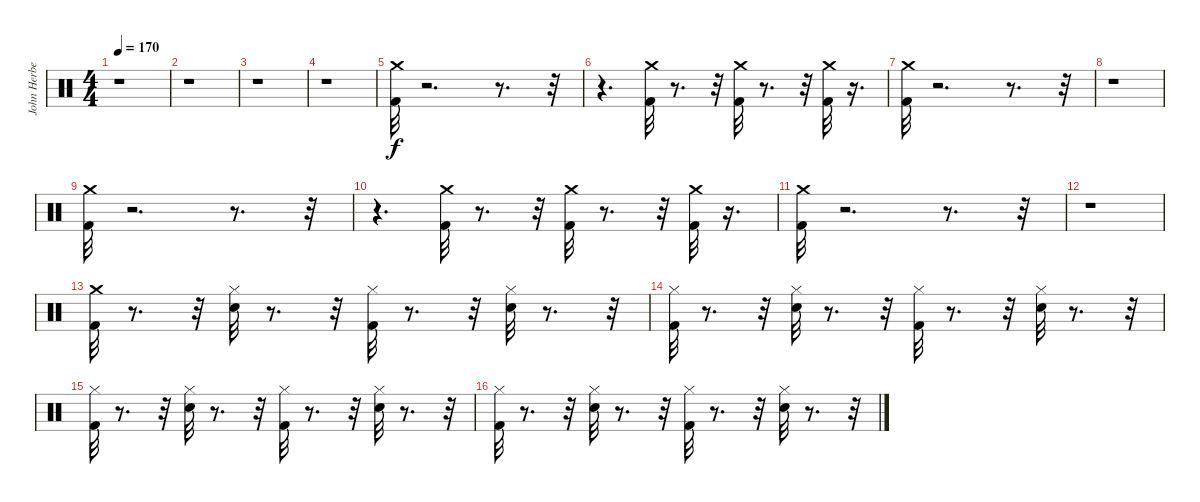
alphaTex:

\track ("John Herbert" "John Herbe") {instrument percussion}
\staff {score}
\articulation defaults
\ts (4 4)
\tempo 170
\clef neutral
\ks c
r.1{dy f} |
r.1 |
r.1 |
r.1 |
("Kick (hit) 2" "Crash medium (hit)").32 r.2{d} r.8{d} r.32 |
r.4{d} ("Crash medium (hit)" "Kick (hit) 2").32 r.8{d} r.32 ("Kick (hit) 2" "Crash medium (hit)").32 r.8{d} r.32 ("Kick (hit) 2" "Crash medium (hit)").32 r.16{d} |
("Kick (hit) 2" "Crash medium (hit)").32 r.2{d} r.8{d} r.32 |
r.1 |
("Kick (hit) 2" "Crash medium (hit)").32 r.2{d} r.8{d} r.32 |
r.4{d} ("Crash medium (hit)" "Kick (hit) 2").32 r.8{d} r.32 ("Kick (hit) 2" "Crash medium (hit)").32 r.8{d} r.32 ("Kick (hit) 2" "Crash medium (hit)").32 r.16{d} |
("Kick (hit) 2" "Crash medium (hit)").32 r.2{d} r.8{d} r.32 |
r.1 |
("Kick (hit) 2" "Crash medium (hit)").32 r.8{d} r.32 ("Hi-Hat (closed)" "Snare (hit) 2").32 r.8{d} r.32 ("Hi-Hat (closed)" "Kick (hit) 2").32 r.8{d} r.32 ("Hi-Hat (closed)" "Snare (hit) 2").32 r.8{d} r.32 |
("Hi-Hat (closed)" "Kick (hit) 2").32 r.8{d} r.32 ("Hi-Hat (closed)" "Snare (hit) 2").32 r.8{d} r.32 ("Hi-Hat (closed)" "Kick (hit) 2").32 r.8{d} r.32 ("Hi-Hat (closed)" "Snare (hit) 2").32 r.8{d} r.32 |
("Hi-Hat (closed)" "Kick (hit) 2").32 r.8{d} r.32 ("Hi-Hat (closed)" "Snare (hit) 2").32 r.8{d} r.32 ("Hi-Hat (closed)" "Kick (hit) 2").32 r.8{d} r.32 ("Hi-Hat (closed)" "Snare (hit) 2").32 r.8{d} r.32 |
("Hi-Hat (closed)" "Kick (hit) 2").32 r.8{d} r.32 ("Hi-Hat (closed)" "Snare (hit) 2").32 r.8{d} r.32 ("Hi-Hat (closed)" "Kick (hit) 2").32 r.8{d} r.32 ("Hi-Hat (closed)" "Snare (hit) 2").32 r.8{d} r.32
